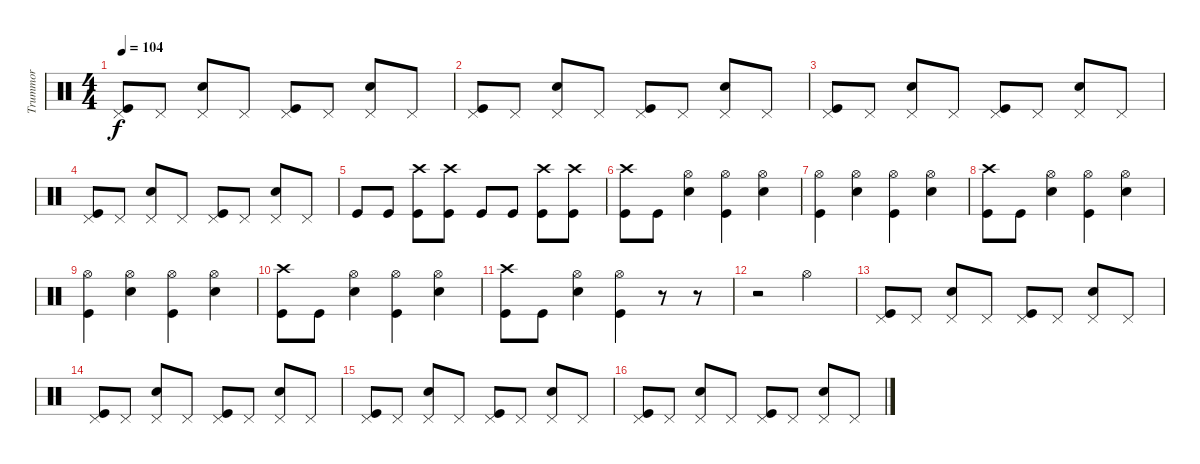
\track ("Trummor" "Trummor") {instrument percussion}
\staff {score}
\articulation defaults
\ts (4 4)
\tempo 104
\clef neutral
\ks c
("Pedal Hi-Hat (hit)" "Kick (hit)").8{dy f} "Pedal Hi-Hat (hit)".8 ("Pedal Hi-Hat (hit)" "Snare (hit) 2").8 "Pedal Hi-Hat (hit)".8 ("Pedal Hi-Hat (hit)" "Kick (hit)").8 "Pedal Hi-Hat (hit)".8 ("Pedal Hi-Hat (hit)" "Snare (hit) 2").8 "Pedal Hi-Hat (hit)".8 |
("Pedal Hi-Hat (hit)" "Kick (hit)").8 "Pedal Hi-Hat (hit)".8 ("Pedal Hi-Hat (hit)" "Snare (hit) 2").8 "Pedal Hi-Hat (hit)".8 ("Pedal Hi-Hat (hit)" "Kick (hit)").8 "Pedal Hi-Hat (hit)".8 ("Pedal Hi-Hat (hit)" "Snare (hit) 2").8 "Pedal Hi-Hat (hit)".8 |
("Pedal Hi-Hat (hit)" "Kick (hit)").8 "Pedal Hi-Hat (hit)".8 ("Pedal Hi-Hat (hit)" "Snare (hit) 2").8 "Pedal Hi-Hat (hit)".8 ("Pedal Hi-Hat (hit)" "Kick (hit)").8 "Pedal Hi-Hat (hit)".8 ("Pedal Hi-Hat (hit)" "Snare (hit) 2").8 "Pedal Hi-Hat (hit)".8 |
("Pedal Hi-Hat (hit)" "Kick (hit)").8 "Pedal Hi-Hat (hit)".8 ("Pedal Hi-Hat (hit)" "Snare (hit) 2").8 "Pedal Hi-Hat (hit)".8 ("Pedal Hi-Hat (hit)" "Kick (hit)").8 "Pedal Hi-Hat (hit)".8 ("Pedal Hi-Hat (hit)" "Snare (hit) 2").8 "Pedal Hi-Hat (hit)".8 |
"Kick (hit)".8 "Kick (hit)".8 ("Crash high (hit)" "Kick (hit)").8 ("Crash high (hit)" "Kick (hit)").8 "Kick (hit)".8 "Kick (hit)".8 ("Crash high (hit)" "Kick (hit)").8 ("Crash high (hit)" "Kick (hit)").8 |
("Crash high (hit)" "Kick (hit)").8 "Kick (hit)".8 ("Hi-Hat (open)" "Snare (hit) 2").4 ("Hi-Hat (open)" "Kick (hit)").4 ("Hi-Hat (open)" "Snare (hit) 2").4 |
("Hi-Hat (open)" "Kick (hit)").4 ("Hi-Hat (open)" "Snare (hit) 2").4 ("Hi-Hat (open)" "Kick (hit)").4 ("Hi-Hat (open)" "Snare (hit) 2").4 |
("Crash high (hit)" "Kick (hit)").8 "Kick (hit)".8 ("Hi-Hat (open)" "Snare (hit) 2").4 ("Hi-Hat (open)" "Kick (hit)").4 ("Hi-Hat (open)" "Snare (hit) 2").4 |
("Hi-Hat (open)" "Kick (hit)").4 ("Hi-Hat (open)" "Snare (hit) 2").4 ("Hi-Hat (open)" "Kick (hit)").4 ("Hi-Hat (open)" "Snare (hit) 2").4 |
("Crash high (hit)" "Kick (hit)").8 "Kick (hit)".8 ("Hi-Hat (open)" "Snare (hit) 2").4 ("Hi-Hat (open)" "Kick (hit)").4 ("Hi-Hat (open)" "Snare (hit) 2").4 |
("Crash high (hit)" "Kick (hit)").8 "Kick (hit)".8 ("Hi-Hat (open)" "Snare (hit) 2").4 ("Hi-Hat (open)" "Kick (hit)").4 r.8 r.8 |
r.2 "Hi-Hat (open)".2 |
("Pedal Hi-Hat (hit)" "Kick (hit)").8 "Pedal Hi-Hat (hit)".8 ("Pedal Hi-Hat (hit)" "Snare (hit) 2").8 "Pedal Hi-Hat (hit)".8 ("Pedal Hi-Hat (hit)" "Kick (hit)").8 "Pedal Hi-Hat (hit)".8 ("Pedal Hi-Hat (hit)" "Snare (hit) 2").8 "Pedal Hi-Hat (hit)".8 |
("Pedal Hi-Hat (hit)" "Kick (hit)").8 "Pedal Hi-Hat (hit)".8 ("Pedal Hi-Hat (hit)" "Snare (hit) 2").8 "Pedal Hi-Hat (hit)".8 ("Pedal Hi-Hat (hit)" "Kick (hit)").8 "Pedal Hi-Hat (hit)".8 ("Pedal Hi-Hat (hit)" "Snare (hit) 2").8 "Pedal Hi-Hat (hit)".8 |
("Pedal Hi-Hat (hit)" "Kick (hit)").8 "Pedal Hi-Hat (hit)".8 ("Pedal Hi-Hat (hit)" "Snare (hit) 2").8 "Pedal Hi-Hat (hit)".8 ("Pedal Hi-Hat (hit)" "Kick (hit)").8 "Pedal Hi-Hat (hit)".8 ("Pedal Hi-Hat (hit)" "Snare (hit) 2").8 "Pedal Hi-Hat (hit)".8 |
("Pedal Hi-Hat (hit)" "Kick (hit)").8 "Pedal Hi-Hat (hit)".8 ("Pedal Hi-Hat (hit)" "Snare (hit) 2").8 "Pedal Hi-Hat (hit)".8 ("Pedal Hi-Hat (hit)" "Kick (hit)").8 "Pedal Hi-Hat (hit)".8 ("Pedal Hi-Hat (hit)" "Snare (hit) 2").8 "Pedal Hi-Hat (hit)".8
